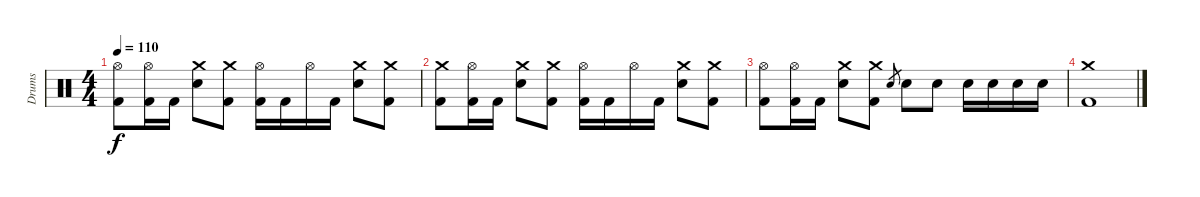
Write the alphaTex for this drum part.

\track ("Drums" "Drums") {instrument percussion}
\staff {score}
\articulation defaults
\ts (4 4)
\tempo 110
\clef neutral
\ks c
("Hi-Hat (open)" "Kick (hit) 2").8{dy f} ("Hi-Hat (open)" "Kick (hit) 2").16 "Kick (hit) 2".16 ("Crash medium (hit)" "Electric Snare (hit)").8 ("Crash medium (hit)" "Kick (hit) 2").8 ("Hi-Hat (open)" "Kick (hit) 2").16 "Kick (hit) 2".16 "Hi-Hat (open)".16 "Kick (hit) 2".16 ("Crash medium (hit)" "Electric Snare (hit)").8 ("Crash medium (hit)" "Kick (hit) 2").8 |
("Crash medium (hit)" "Kick (hit) 2").8 ("Hi-Hat (open)" "Kick (hit) 2").16 "Kick (hit) 2".16 ("Crash medium (hit)" "Electric Snare (hit)").8 ("Crash medium (hit)" "Kick (hit) 2").8 ("Hi-Hat (open)" "Kick (hit) 2").16 "Kick (hit) 2".16 "Hi-Hat (open)".16 "Kick (hit) 2".16 ("Crash medium (hit)" "Electric Snare (hit)").8 ("Crash medium (hit)" "Kick (hit) 2").8 |
("Hi-Hat (open)" "Kick (hit) 2").8 ("Hi-Hat (open)" "Kick (hit) 2").16 "Kick (hit) 2".16 ("Crash medium (hit)" "Electric Snare (hit)").8 ("Crash medium (hit)" "Kick (hit) 2").8 "Electric Snare (hit)".8{gr} "Electric Snare (hit)".8 "Electric Snare (hit)".8 "Electric Snare (hit)".16 "Electric Snare (hit)".16 "Electric Snare (hit)".16 "Electric Snare (hit)".16 |
("Kick (hit) 2" "Crash medium (hit)").1
